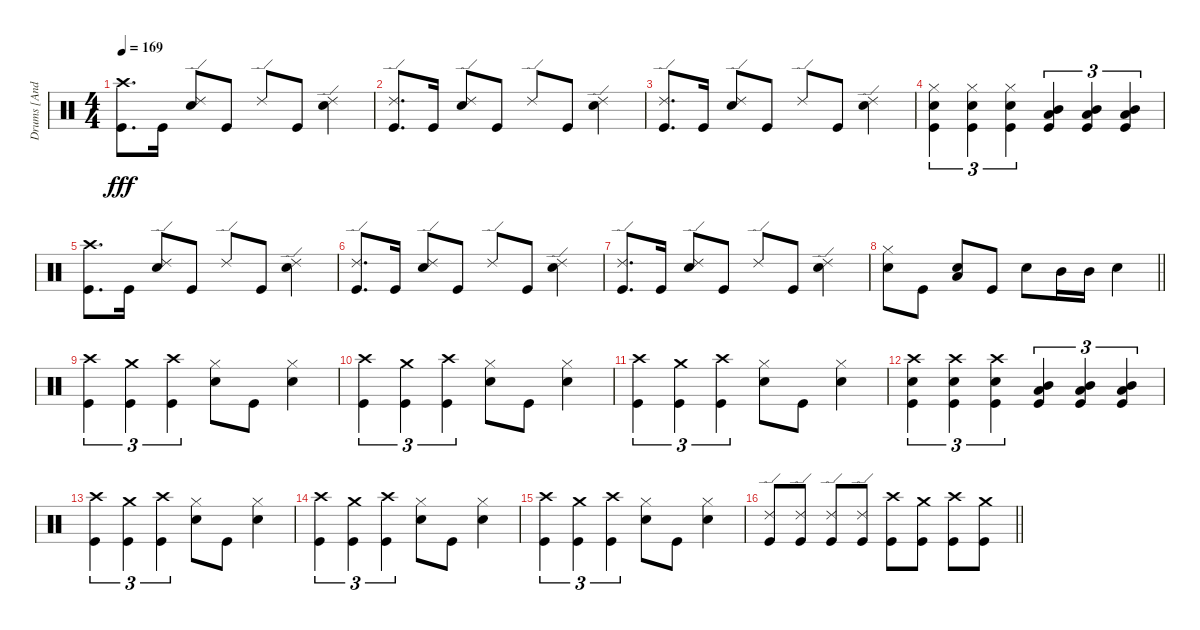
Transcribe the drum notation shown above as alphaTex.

\track ("Drums [Andrew Forsman]" "Drums [And") {instrument percussion}
\staff {score}
\articulation defaults
\ts (4 4)
\tempo 169
\clef neutral
\ks c
("Crash high (hit)" "Kick (hit)").8{d dy fff} "Kick (hit)".16 ("Ride (edge) 2" "Snare (hit) 2").8 "Kick (hit)".8 "Ride (edge) 2".8 "Kick (hit)".8 ("Ride (edge) 2" "Snare (hit) 2").4 |
("Ride (edge) 2" "Kick (hit)").8{d} "Kick (hit)".16 ("Ride (edge) 2" "Snare (hit) 2").8 "Kick (hit)".8 "Ride (edge) 2".8 "Kick (hit)".8 ("Ride (edge) 2" "Snare (hit) 2").4 |
("Ride (edge) 2" "Kick (hit)").8{d} "Kick (hit)".16 ("Ride (edge) 2" "Snare (hit) 2").8 "Kick (hit)".8 "Ride (edge) 2".8 "Kick (hit)".8 ("Ride (edge) 2" "Snare (hit) 2").4 |
("Hi-Hat (closed)" "Snare (hit) 2" "Kick (hit)").4{tu (3 2)} ("Hi-Hat (closed)" "Snare (hit) 2" "Kick (hit)").4{tu (3 2)} ("Hi-Hat (closed)" "Snare (hit) 2" "Kick (hit)").4{tu (3 2)} ("Mid Tom (hit)" "Low Tom (hit)" "Kick (hit)").4{tu (3 2)} ("Mid Tom (hit)" "Low Tom (hit)" "Kick (hit)").4{tu (3 2)} ("Mid Tom (hit)" "Low Tom (hit)" "Kick (hit)").4{tu (3 2)} |
("Crash high (hit)" "Kick (hit)").8{d} "Kick (hit)".16 ("Ride (edge) 2" "Snare (hit) 2").8 "Kick (hit)".8 "Ride (edge) 2".8 "Kick (hit)".8 ("Ride (edge) 2" "Snare (hit) 2").4 |
("Ride (edge) 2" "Kick (hit)").8{d} "Kick (hit)".16 ("Ride (edge) 2" "Snare (hit) 2").8 "Kick (hit)".8 "Ride (edge) 2".8 "Kick (hit)".8 ("Ride (edge) 2" "Snare (hit) 2").4 |
("Ride (edge) 2" "Kick (hit)").8{d} "Kick (hit)".16 ("Ride (edge) 2" "Snare (hit) 2").8 "Kick (hit)".8 "Ride (edge) 2".8 "Kick (hit)".8 ("Ride (edge) 2" "Snare (hit) 2").4 |
\barLineRight lightlight
("Snare (hit) 2" "Hi-Hat (closed)").8 "Kick (hit)".8 ("Snare (hit) 2" "Low Tom (hit)").8 "Kick (hit)".8 "Snare (hit) 2".8 "Mid Tom (hit)".16 "Mid Tom (hit)".16 "Snare (hit) 2".4 |
("Crash high (hit)" "Kick (hit)").4{tu (3 2)} ("Crash medium (hit)" "Kick (hit)").4{tu (3 2)} ("Crash high (hit)" "Kick (hit)").4{tu (3 2)} ("Snare (hit) 2" "Hi-Hat (closed)").8 "Kick (hit)".8 ("Snare (hit) 2" "Hi-Hat (closed)").4 |
("Crash high (hit)" "Kick (hit)").4{tu (3 2)} ("Crash medium (hit)" "Kick (hit)").4{tu (3 2)} ("Crash high (hit)" "Kick (hit)").4{tu (3 2)} ("Snare (hit) 2" "Hi-Hat (closed)").8 "Kick (hit)".8 ("Snare (hit) 2" "Hi-Hat (closed)").4 |
("Crash high (hit)" "Kick (hit)").4{tu (3 2)} ("Crash medium (hit)" "Kick (hit)").4{tu (3 2)} ("Crash high (hit)" "Kick (hit)").4{tu (3 2)} ("Snare (hit) 2" "Hi-Hat (closed)").8 "Kick (hit)".8 ("Snare (hit) 2" "Hi-Hat (closed)").4 |
("Crash high (hit)" "Snare (hit) 2" "Kick (hit)").4{tu (3 2)} ("Crash high (hit)" "Snare (hit) 2" "Kick (hit)").4{tu (3 2)} ("Crash high (hit)" "Snare (hit) 2" "Kick (hit)").4{tu (3 2)} ("Mid Tom (hit)" "Low Tom (hit)" "Kick (hit)").4{tu (3 2)} ("Mid Tom (hit)" "Low Tom (hit)" "Kick (hit)").4{tu (3 2)} ("Mid Tom (hit)" "Low Tom (hit)" "Kick (hit)").4{tu (3 2)} |
("Crash high (hit)" "Kick (hit)").4{tu (3 2)} ("Crash medium (hit)" "Kick (hit)").4{tu (3 2)} ("Crash high (hit)" "Kick (hit)").4{tu (3 2)} ("Snare (hit) 2" "Hi-Hat (closed)").8 "Kick (hit)".8 ("Snare (hit) 2" "Hi-Hat (closed)").4 |
("Crash high (hit)" "Kick (hit)").4{tu (3 2)} ("Crash medium (hit)" "Kick (hit)").4{tu (3 2)} ("Crash high (hit)" "Kick (hit)").4{tu (3 2)} ("Snare (hit) 2" "Hi-Hat (closed)").8 "Kick (hit)".8 ("Snare (hit) 2" "Hi-Hat (closed)").4 |
("Crash high (hit)" "Kick (hit)").4{tu (3 2)} ("Crash medium (hit)" "Kick (hit)").4{tu (3 2)} ("Crash high (hit)" "Kick (hit)").4{tu (3 2)} ("Snare (hit) 2" "Hi-Hat (closed)").8 "Kick (hit)".8 ("Snare (hit) 2" "Hi-Hat (closed)").4 |
\barLineRight lightlight
("Ride (edge) 2" "Kick (hit)").8 ("Ride (edge) 2" "Kick (hit)").8 ("Ride (edge) 2" "Kick (hit)").8 ("Ride (edge) 2" "Kick (hit)").8 ("Crash high (hit)" "Kick (hit)").8 ("Crash medium (hit)" "Kick (hit)").8 ("Crash high (hit)" "Kick (hit)").8 ("Crash medium (hit)" "Kick (hit)").8
